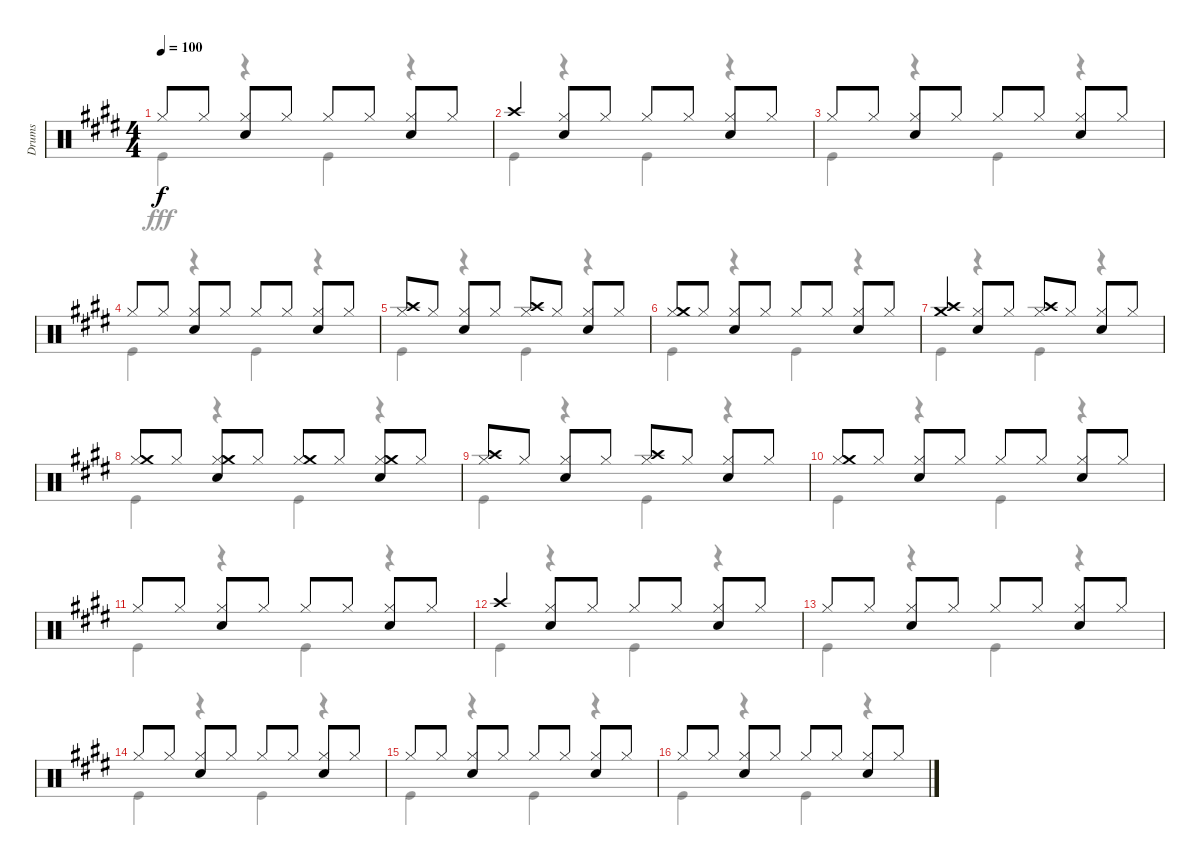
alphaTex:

\track ("Drums" "Drums") {instrument percussion}
\staff {score}
\articulation defaults
\voice
\ts (4 4)
\tempo 100
\clef neutral
\ks e "Hi-Hat (closed)".8{dy f} "Hi-Hat (closed)".8
("Hi-Hat (closed)" "Snare (hit) 2").8 "Hi-Hat (closed)".8 "Hi-Hat (closed)".8 "Hi-Hat (closed)".8 ("Hi-Hat (closed)" "Snare (hit) 2").8 "Hi-Hat (closed)".8 |
"Crash high (hit)".4 ("Hi-Hat (closed)" "Snare (hit) 2").8 "Hi-Hat (closed)".8 "Hi-Hat (closed)".8 "Hi-Hat (closed)".8 ("Hi-Hat (closed)" "Snare (hit) 2").8 "Hi-Hat (closed)".8 |
"Hi-Hat (closed)".8 "Hi-Hat (closed)".8 ("Hi-Hat (closed)" "Snare (hit) 2").8 "Hi-Hat (closed)".8 "Hi-Hat (closed)".8 "Hi-Hat (closed)".8 ("Hi-Hat (closed)" "Snare (hit) 2").8 "Hi-Hat (closed)".8 |
"Hi-Hat (closed)".8 "Hi-Hat (closed)".8 ("Hi-Hat (closed)" "Snare (hit) 2").8 "Hi-Hat (closed)".8 "Hi-Hat (closed)".8 "Hi-Hat (closed)".8 ("Hi-Hat (closed)" "Snare (hit) 2").8 "Hi-Hat (closed)".8 |
("Hi-Hat (closed)" "Crash high (hit)").8 "Hi-Hat (closed)".8 ("Hi-Hat (closed)" "Snare (hit) 2").8 "Hi-Hat (closed)".8 ("Hi-Hat (closed)" "Crash high (hit)").8 "Hi-Hat (closed)".8 ("Hi-Hat (closed)" "Snare (hit) 2").8 "Hi-Hat (closed)".8 |
("Hi-Hat (closed)" "Crash medium (hit)").8 "Hi-Hat (closed)".8 ("Hi-Hat (closed)" "Snare (hit) 2").8 "Hi-Hat (closed)".8 "Hi-Hat (closed)".8 "Hi-Hat (closed)".8 ("Hi-Hat (closed)" "Snare (hit) 2").8 "Hi-Hat (closed)".8 |
("Crash high (hit)" "Crash medium (hit)").4 ("Hi-Hat (closed)" "Snare (hit) 2").8 "Hi-Hat (closed)".8 ("Hi-Hat (closed)" "Crash high (hit)").8 "Hi-Hat (closed)".8 ("Hi-Hat (closed)" "Snare (hit) 2").8 "Hi-Hat (closed)".8 |
("Hi-Hat (closed)" "Crash medium (hit)").8 "Hi-Hat (closed)".8 ("Hi-Hat (closed)" "Snare (hit) 2" "Crash medium (hit)").8 "Hi-Hat (closed)".8 ("Hi-Hat (closed)" "Crash medium (hit)").8 "Hi-Hat (closed)".8 ("Hi-Hat (closed)" "Snare (hit) 2" "Crash medium (hit)").8 "Hi-Hat (closed)".8 |
("Hi-Hat (closed)" "Crash high (hit)").8 "Hi-Hat (closed)".8 ("Hi-Hat (closed)" "Snare (hit) 2").8 "Hi-Hat (closed)".8 ("Hi-Hat (closed)" "Crash high (hit)").8 "Hi-Hat (closed)".8 ("Hi-Hat (closed)" "Snare (hit) 2").8 "Hi-Hat (closed)".8 |
("Hi-Hat (closed)" "Crash medium (hit)").8 "Hi-Hat (closed)".8 ("Hi-Hat (closed)" "Snare (hit) 2").8 "Hi-Hat (closed)".8 "Hi-Hat (closed)".8 "Hi-Hat (closed)".8 ("Hi-Hat (closed)" "Snare (hit) 2").8 "Hi-Hat (closed)".8 |
"Hi-Hat (closed)".8 "Hi-Hat (closed)".8 ("Hi-Hat (closed)" "Snare (hit) 2").8 "Hi-Hat (closed)".8 "Hi-Hat (closed)".8 "Hi-Hat (closed)".8 ("Hi-Hat (closed)" "Snare (hit) 2").8 "Hi-Hat (closed)".8 |
"Crash high (hit)".4 ("Hi-Hat (closed)" "Snare (hit) 2").8 "Hi-Hat (closed)".8 "Hi-Hat (closed)".8 "Hi-Hat (closed)".8 ("Hi-Hat (closed)" "Snare (hit) 2").8 "Hi-Hat (closed)".8 |
"Hi-Hat (closed)".8 "Hi-Hat (closed)".8 ("Hi-Hat (closed)" "Snare (hit) 2").8 "Hi-Hat (closed)".8 "Hi-Hat (closed)".8 "Hi-Hat (closed)".8 ("Hi-Hat (closed)" "Snare (hit) 2").8 "Hi-Hat (closed)".8 |
"Hi-Hat (closed)".8 "Hi-Hat (closed)".8 ("Hi-Hat (closed)" "Snare (hit) 2").8 "Hi-Hat (closed)".8 "Hi-Hat (closed)".8 "Hi-Hat (closed)".8 ("Hi-Hat (closed)" "Snare (hit) 2").8 "Hi-Hat (closed)".8 |
"Hi-Hat (closed)".8 "Hi-Hat (closed)".8 ("Hi-Hat (closed)" "Snare (hit) 2").8 "Hi-Hat (closed)".8 "Hi-Hat (closed)".8 "Hi-Hat (closed)".8 ("Hi-Hat (closed)" "Snare (hit) 2").8 "Hi-Hat (closed)".8 |
"Hi-Hat (closed)".8 "Hi-Hat (closed)".8 ("Hi-Hat (closed)" "Snare (hit) 2").8 "Hi-Hat (closed)".8 "Hi-Hat (closed)".8 "Hi-Hat (closed)".8 ("Hi-Hat (closed)" "Snare (hit) 2").8 "Hi-Hat (closed)".8
\voice
\clef neutral
\ottava regular
\simile none
\ks e "Kick (hit)".4{dy fff}
r.4 "Kick (hit)".4 r.4 |
"Kick (hit)".4 r.4 "Kick (hit)".4 r.4 |
"Kick (hit)".4 r.4 "Kick (hit)".4 r.4 |
"Kick (hit)".4 r.4 "Kick (hit)".4 r.4 |
"Kick (hit)".4 r.4 "Kick (hit)".4 r.4 |
"Kick (hit)".4 r.4 "Kick (hit)".4 r.4 |
"Kick (hit)".4 r.4 "Kick (hit)".4 r.4 |
"Kick (hit)".4 r.4 "Kick (hit)".4 r.4 |
"Kick (hit)".4 r.4 "Kick (hit)".4 r.4 |
"Kick (hit)".4 r.4 "Kick (hit)".4 r.4 |
"Kick (hit)".4 r.4 "Kick (hit)".4 r.4 |
"Kick (hit)".4 r.4 "Kick (hit)".4 r.4 |
"Kick (hit)".4 r.4 "Kick (hit)".4 r.4 |
"Kick (hit)".4 r.4 "Kick (hit)".4 r.4 |
"Kick (hit)".4 r.4 "Kick (hit)".4 r.4 |
"Kick (hit)".4 r.4 "Kick (hit)".4 r.4
